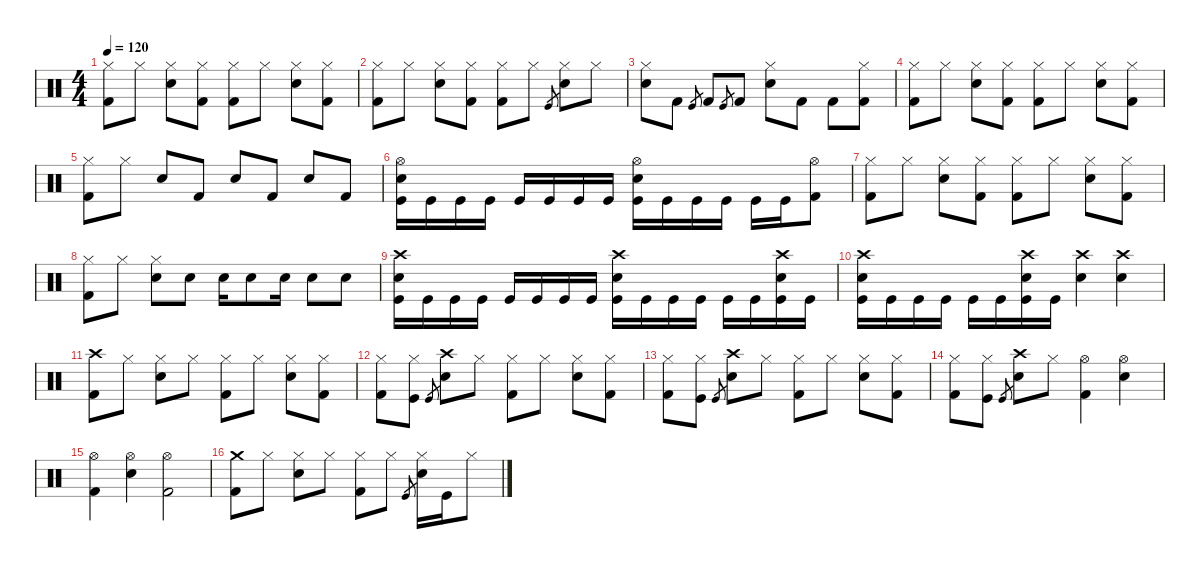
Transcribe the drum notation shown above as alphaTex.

\defaultSystemsLayout 4
\hideDynamics
\bracketExtendMode nobrackets
\singleTrackTrackNamePolicy hidden
\multiTrackTrackNamePolicy hidden
\otherSystemsTrackNameOrientation horizontal
\track ("Ulrich" "drm.") {instrument percussion}
\staff {score}
\articulation defaults
\ts (4 4)
\tempo 120
\clef neutral
\ks c
("Hi-Hat (closed)" "Kick (hit) 2").8{dy f beam Down} "Hi-Hat (closed)".8{beam Down} ("Hi-Hat (closed)" "Snare (hit) 2").8{beam Down} ("Hi-Hat (closed)" "Kick (hit) 2").8{beam Down} ("Hi-Hat (closed)" "Kick (hit) 2").8{beam Down} "Hi-Hat (closed)".8{beam Down} ("Hi-Hat (closed)" "Snare (hit) 2").8{beam Down} ("Hi-Hat (closed)" "Kick (hit) 2").8{beam Down} |
("Hi-Hat (closed)" "Kick (hit) 2").8{beam Down} "Hi-Hat (closed)".8{beam Down} ("Hi-Hat (closed)" "Snare (hit) 2").8{beam Down} ("Hi-Hat (closed)" "Kick (hit) 2").8{beam Down} ("Hi-Hat (closed)" "Kick (hit) 2").8{beam Down} "Hi-Hat (closed)".8{beam Down} "Kick (hit)".8{gr dy ff beam Up} ("Hi-Hat (closed)" "Snare (hit) 2").8{dy f beam Down} "Hi-Hat (closed)".8{beam Down} |
("Hi-Hat (closed)" "Snare (hit) 2").8{beam Down} "Kick (hit) 2".8{beam Down} "Kick (hit)".8{gr dy ff beam Up} "Kick (hit) 2".8{dy f beam Up} "Kick (hit)".8{gr dy ff beam Up} "Kick (hit) 2".8{dy f beam Up} ("Hi-Hat (closed)" "Snare (hit) 2").8{beam Down} "Kick (hit) 2".8{beam Down} "Kick (hit) 2".8{beam Down} ("Hi-Hat (closed)" "Kick (hit) 2").8{beam Down} |
("Hi-Hat (closed)" "Kick (hit) 2").8{beam Down} "Hi-Hat (closed)".8{beam Down} ("Hi-Hat (closed)" "Snare (hit) 2").8{beam Down} ("Hi-Hat (closed)" "Kick (hit) 2").8{beam Down} ("Hi-Hat (closed)" "Kick (hit) 2").8{beam Down} "Hi-Hat (closed)".8{beam Down} ("Hi-Hat (closed)" "Snare (hit) 2").8{beam Down} ("Hi-Hat (closed)" "Kick (hit) 2").8{beam Down} |
("Hi-Hat (closed)" "Kick (hit) 2").8{beam Down} "Hi-Hat (closed)".8{beam Down} "Snare (hit) 2".8{beam Up} "Kick (hit) 2".8{beam Up} "Snare (hit) 2".8{beam Up} "Kick (hit) 2".8{beam Up} "Snare (hit) 2".8{beam Up} "Kick (hit) 2".8{beam Up} |
("Hi-Hat (open)" "Kick (hit)" "Snare (hit) 2").16{beam Down} "Kick (hit)".16{dy fff beam Down} "Kick (hit)".16{beam Down} "Kick (hit)".16{beam Down} "Kick (hit)".16{beam Up} "Kick (hit)".16{beam Up} "Kick (hit)".16{beam Up} "Kick (hit)".16{beam Up} ("Hi-Hat (open)" "Kick (hit)" "Snare (hit) 2").16{dy f beam Down} "Kick (hit)".16{dy fff beam Down} "Kick (hit)".16{beam Down} "Kick (hit)".16{beam Down} "Kick (hit)".16{beam Down} "Kick (hit)".16{beam Down} ("Hi-Hat (open)" "Kick (hit) 2").8{dy f beam Down} |
("Hi-Hat (closed)" "Kick (hit) 2").8{beam Down} "Hi-Hat (closed)".8{beam Down} ("Hi-Hat (closed)" "Snare (hit) 2").8{beam Down} ("Hi-Hat (closed)" "Kick (hit) 2").8{beam Down} ("Hi-Hat (closed)" "Kick (hit) 2").8{beam Down} "Hi-Hat (closed)".8{beam Down} ("Hi-Hat (closed)" "Snare (hit) 2").8{beam Down} ("Hi-Hat (closed)" "Kick (hit) 2").8{beam Down} |
("Hi-Hat (closed)" "Kick (hit) 2").8{beam Down} "Hi-Hat (closed)".8{beam Down} ("Hi-Hat (closed)" "Snare (hit) 2").8{beam Down} "Snare (hit) 2".8{beam Down} "Snare (hit) 2".16{beam Down} "Snare (hit) 2".8{beam Down} "Snare (hit) 2".16{beam Down} "Snare (hit) 2".8{beam Down} "Snare (hit) 2".8{beam Down} |
("Crash high (hit)" "Kick (hit)" "Snare (hit) 2").16{beam Down} "Kick (hit)".16{dy fff beam Down} "Kick (hit)".16{beam Down} "Kick (hit)".16{beam Down} "Kick (hit)".16{beam Up} "Kick (hit)".16{beam Up} "Kick (hit)".16{beam Up} "Kick (hit)".16{beam Up} ("Crash high (hit)" "Kick (hit)" "Snare (hit) 2").16{dy f beam Down} "Kick (hit)".16{dy fff beam Down} "Kick (hit)".16{beam Down} "Kick (hit)".16{beam Down} "Kick (hit)".16{beam Down} "Kick (hit)".16{beam Down} ("Crash high (hit)" "Kick (hit)" "Snare (hit) 2").16{dy f beam Down} "Kick (hit)".16{dy fff beam Down} |
("Crash high (hit)" "Kick (hit)" "Snare (hit) 2").16{dy f beam Down} "Kick (hit)".16{dy fff beam Down} "Kick (hit)".16{beam Down} "Kick (hit)".16{beam Down} "Kick (hit)".16{beam Down} "Kick (hit)".16{beam Down} ("Crash high (hit)" "Kick (hit)" "Snare (hit) 2").16{dy f beam Down} "Kick (hit)".16{dy fff beam Down} ("Crash high (hit)" "Snare (hit) 2").4{dy f beam Down} ("Crash high (hit)" "Snare (hit) 2").4{beam Down} |
("Crash high (hit)" "Kick (hit) 2").8{beam Down} "Hi-Hat (closed)".8{beam Down} ("Hi-Hat (closed)" "Snare (hit) 2").8{beam Down} "Hi-Hat (closed)".8{beam Down} ("Hi-Hat (closed)" "Kick (hit) 2").8{beam Down} "Hi-Hat (closed)".8{beam Down} ("Hi-Hat (closed)" "Snare (hit) 2").8{beam Down} ("Hi-Hat (closed)" "Kick (hit) 2").8{beam Down} |
("Hi-Hat (closed)" "Kick (hit) 2").8{beam Down} ("Hi-Hat (closed)" "Kick (hit)").8{beam Down} "Kick (hit)".8{gr dy ff beam Up} ("Crash high (hit)" "Snare (hit) 2").8{dy f beam Down} "Hi-Hat (closed)".8{beam Down} ("Hi-Hat (closed)" "Kick (hit) 2").8{beam Down} "Hi-Hat (closed)".8{beam Down} ("Hi-Hat (closed)" "Snare (hit) 2").8{beam Down} ("Hi-Hat (closed)" "Kick (hit) 2").8{beam Down} |
("Hi-Hat (closed)" "Kick (hit) 2").8{beam Down} ("Hi-Hat (closed)" "Kick (hit)").8{beam Down} "Kick (hit)".8{gr dy ff beam Up} ("Crash high (hit)" "Snare (hit) 2").8{dy f beam Down} "Hi-Hat (closed)".8{beam Down} ("Hi-Hat (closed)" "Kick (hit) 2").8{beam Down} "Hi-Hat (closed)".8{beam Down} ("Hi-Hat (closed)" "Snare (hit) 2").8{beam Down} ("Hi-Hat (closed)" "Kick (hit) 2").8{beam Down} |
("Hi-Hat (closed)" "Kick (hit) 2").8{beam Down} ("Hi-Hat (closed)" "Kick (hit)").8{beam Down} "Kick (hit)".8{gr dy ff beam Up} ("Crash high (hit)" "Snare (hit) 2").8{dy f beam Down} "Hi-Hat (closed)".8{beam Down} ("Hi-Hat (open)" "Kick (hit) 2").4{beam Down} ("Hi-Hat (open)" "Snare (hit) 2").4{beam Down} |
("Hi-Hat (open)" "Kick (hit) 2").4{beam Down} ("Hi-Hat (open)" "Snare (hit) 2").4{beam Down} ("Hi-Hat (open)" "Kick (hit) 2").2{beam Down} |
("Crash medium (hit)" "Kick (hit) 2").8{beam Down} "Hi-Hat (closed)".8{beam Down} ("Hi-Hat (closed)" "Snare (hit) 2").8{beam Down} "Hi-Hat (closed)".8{beam Down} ("Hi-Hat (closed)" "Kick (hit) 2").8{beam Down} "Hi-Hat (closed)".8{beam Down} "Kick (hit)".8{gr dy ff beam Up} ("Hi-Hat (closed)" "Snare (hit) 2").16{dy f beam Down} "Kick (hit)".16{dy fff beam Down} "Hi-Hat (closed)".8{dy f beam Down}
